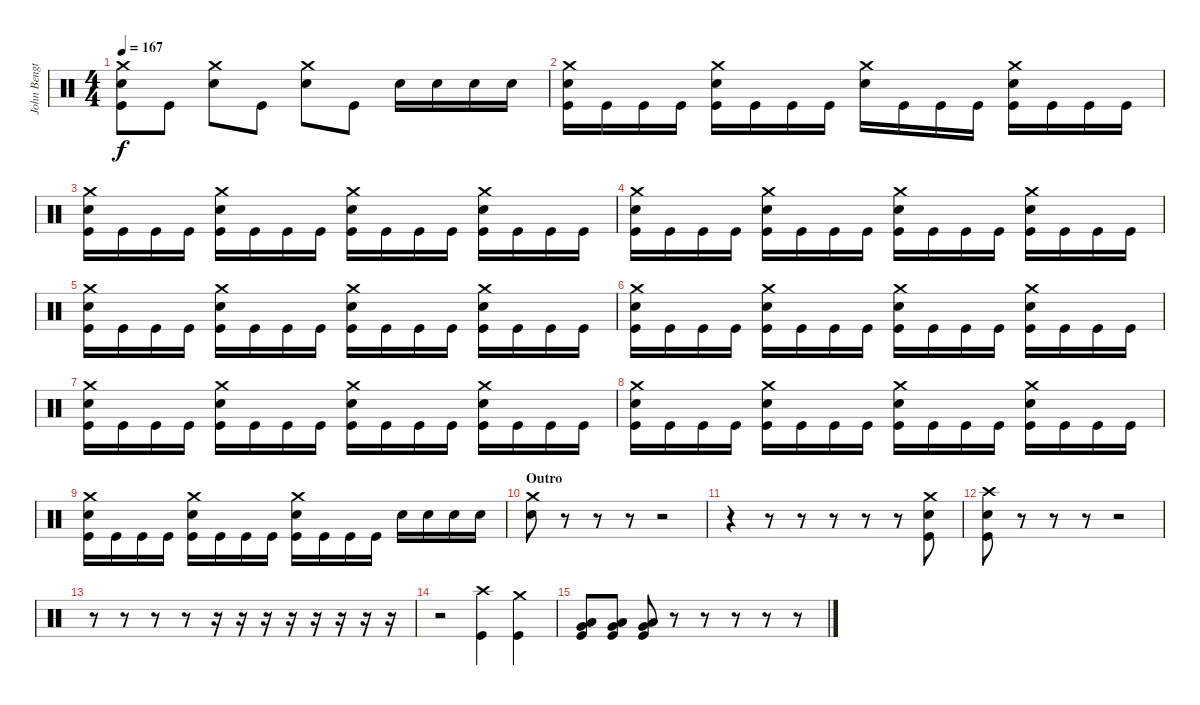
\track ("John Bengtsson" "John Bengt") {instrument percussion}
\staff {score}
\articulation defaults
\ts (4 4)
\tempo 167
\clef neutral
\ks c
("Crash medium (hit)" "Snare (hit) 2" "Kick (hit)").8{dy f} "Kick (hit)".8 ("Crash medium (hit)" "Snare (hit) 2").8 "Kick (hit)".8 ("Crash medium (hit)" "Snare (hit) 2").8 "Kick (hit)".8 "Snare (hit) 2".16 "Snare (hit) 2".16 "Snare (hit) 2".16 "Snare (hit) 2".16 |
("Crash medium (hit)" "Snare (hit) 2" "Kick (hit)").16 "Kick (hit)".16 "Kick (hit)".16 "Kick (hit)".16 ("Crash medium (hit)" "Snare (hit) 2" "Kick (hit)").16 "Kick (hit)".16 "Kick (hit)".16 "Kick (hit)".16 ("Crash medium (hit)" "Snare (hit) 2").16 "Kick (hit)".16 "Kick (hit)".16 "Kick (hit)".16 ("Crash medium (hit)" "Snare (hit) 2" "Kick (hit)").16 "Kick (hit)".16 "Kick (hit)".16 "Kick (hit)".16 |
("Crash medium (hit)" "Snare (hit) 2" "Kick (hit)").16 "Kick (hit)".16 "Kick (hit)".16 "Kick (hit)".16 ("Crash medium (hit)" "Snare (hit) 2" "Kick (hit)").16 "Kick (hit)".16 "Kick (hit)".16 "Kick (hit)".16 ("Crash medium (hit)" "Snare (hit) 2" "Kick (hit)").16 "Kick (hit)".16 "Kick (hit)".16 "Kick (hit)".16 ("Crash medium (hit)" "Snare (hit) 2" "Kick (hit)").16 "Kick (hit)".16 "Kick (hit)".16 "Kick (hit)".16 |
("Crash medium (hit)" "Snare (hit) 2" "Kick (hit)").16 "Kick (hit)".16 "Kick (hit)".16 "Kick (hit)".16 ("Crash medium (hit)" "Snare (hit) 2" "Kick (hit)").16 "Kick (hit)".16 "Kick (hit)".16 "Kick (hit)".16 ("Crash medium (hit)" "Snare (hit) 2" "Kick (hit)").16 "Kick (hit)".16 "Kick (hit)".16 "Kick (hit)".16 ("Crash medium (hit)" "Snare (hit) 2" "Kick (hit)").16 "Kick (hit)".16 "Kick (hit)".16 "Kick (hit)".16 |
("Crash medium (hit)" "Snare (hit) 2" "Kick (hit)").16 "Kick (hit)".16 "Kick (hit)".16 "Kick (hit)".16 ("Crash medium (hit)" "Snare (hit) 2" "Kick (hit)").16 "Kick (hit)".16 "Kick (hit)".16 "Kick (hit)".16 ("Crash medium (hit)" "Snare (hit) 2" "Kick (hit)").16 "Kick (hit)".16 "Kick (hit)".16 "Kick (hit)".16 ("Crash medium (hit)" "Snare (hit) 2" "Kick (hit)").16 "Kick (hit)".16 "Kick (hit)".16 "Kick (hit)".16 |
("Crash medium (hit)" "Snare (hit) 2" "Kick (hit)").16 "Kick (hit)".16 "Kick (hit)".16 "Kick (hit)".16 ("Crash medium (hit)" "Snare (hit) 2" "Kick (hit)").16 "Kick (hit)".16 "Kick (hit)".16 "Kick (hit)".16 ("Crash medium (hit)" "Snare (hit) 2" "Kick (hit)").16 "Kick (hit)".16 "Kick (hit)".16 "Kick (hit)".16 ("Crash medium (hit)" "Snare (hit) 2" "Kick (hit)").16 "Kick (hit)".16 "Kick (hit)".16 "Kick (hit)".16 |
("Crash medium (hit)" "Snare (hit) 2" "Kick (hit)").16 "Kick (hit)".16 "Kick (hit)".16 "Kick (hit)".16 ("Crash medium (hit)" "Snare (hit) 2" "Kick (hit)").16 "Kick (hit)".16 "Kick (hit)".16 "Kick (hit)".16 ("Crash medium (hit)" "Snare (hit) 2" "Kick (hit)").16 "Kick (hit)".16 "Kick (hit)".16 "Kick (hit)".16 ("Crash medium (hit)" "Snare (hit) 2" "Kick (hit)").16 "Kick (hit)".16 "Kick (hit)".16 "Kick (hit)".16 |
("Crash medium (hit)" "Snare (hit) 2" "Kick (hit)").16 "Kick (hit)".16 "Kick (hit)".16 "Kick (hit)".16 ("Crash medium (hit)" "Snare (hit) 2" "Kick (hit)").16 "Kick (hit)".16 "Kick (hit)".16 "Kick (hit)".16 ("Crash medium (hit)" "Snare (hit) 2" "Kick (hit)").16 "Kick (hit)".16 "Kick (hit)".16 "Kick (hit)".16 ("Crash medium (hit)" "Snare (hit) 2" "Kick (hit)").16 "Kick (hit)".16 "Kick (hit)".16 "Kick (hit)".16 |
("Crash medium (hit)" "Snare (hit) 2" "Kick (hit)").16 "Kick (hit)".16 "Kick (hit)".16 "Kick (hit)".16 ("Crash medium (hit)" "Snare (hit) 2" "Kick (hit)").16 "Kick (hit)".16 "Kick (hit)".16 "Kick (hit)".16 ("Crash medium (hit)" "Snare (hit) 2" "Kick (hit)").16 "Kick (hit)".16 "Kick (hit)".16 "Kick (hit)".16 "Snare (hit) 2".16 "Snare (hit) 2".16 "Snare (hit) 2".16 "Snare (hit) 2".16 |
\section ("" "Outro")
("Crash medium (hit)" "Snare (hit) 2").8 r.8 r.8 r.8 r.2 |
r.4 r.8 r.8 r.8 r.8 r.8 ("Crash medium (hit)" "Snare (hit) 2" "Kick (hit)").8 |
("Crash high (hit)" "Snare (hit) 2" "Kick (hit)").8 r.8 r.8 r.8 r.2 |
r.8 r.8 r.8 r.8 r.16 r.16 r.16 r.16 r.16 r.16 r.16 r.16 |
r.2 ("Crash high (hit)" "Kick (hit)").4 ("Crash medium (hit)" "Kick (hit)").4 |
("Low Tom (hit)" "Very Low Tom (hit)" "Kick (hit)").8 ("Low Tom (hit)" "Very Low Tom (hit)" "Kick (hit)").8 ("Low Tom (hit)" "Very Low Tom (hit)" "Kick (hit)").8 r.8 r.8 r.8 r.8 r.8
